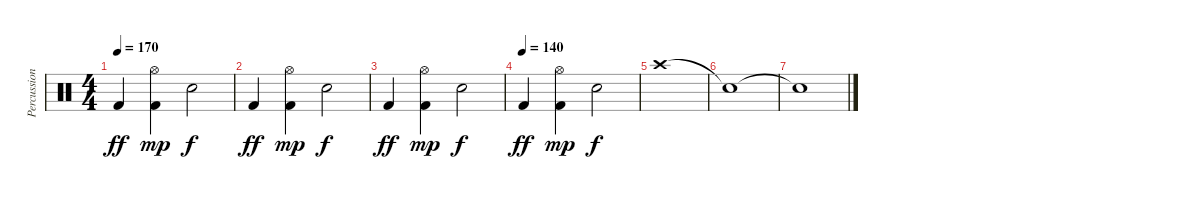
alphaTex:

\track ("Percussion" "Percussion") {instrument percussion}
\staff {score}
\articulation defaults
\ts (4 4)
\tempo 170
\clef neutral
\ks c "Kick (hit) 2".4{dy ff}
("Hi-Hat (open)" "Kick (hit) 2").4{dy mp} "Electric Snare (hit)".2{dy f} |
"Kick (hit) 2".4{dy ff} ("Hi-Hat (open)" "Kick (hit) 2").4{dy mp} "Electric Snare (hit)".2{dy f} |
"Kick (hit) 2".4{dy ff} ("Hi-Hat (open)" "Kick (hit) 2").4{dy mp} "Electric Snare (hit)".2{dy f} |
\tempo (140)
"Kick (hit) 2".4{dy ff} ("Hi-Hat (open)" "Kick (hit) 2").4{dy mp} "Electric Snare (hit)".2{dy f} |
"Crash high (hit)".1 |
"Snare (hit)"{t}.1 |
"Snare (hit)"{t}.1
